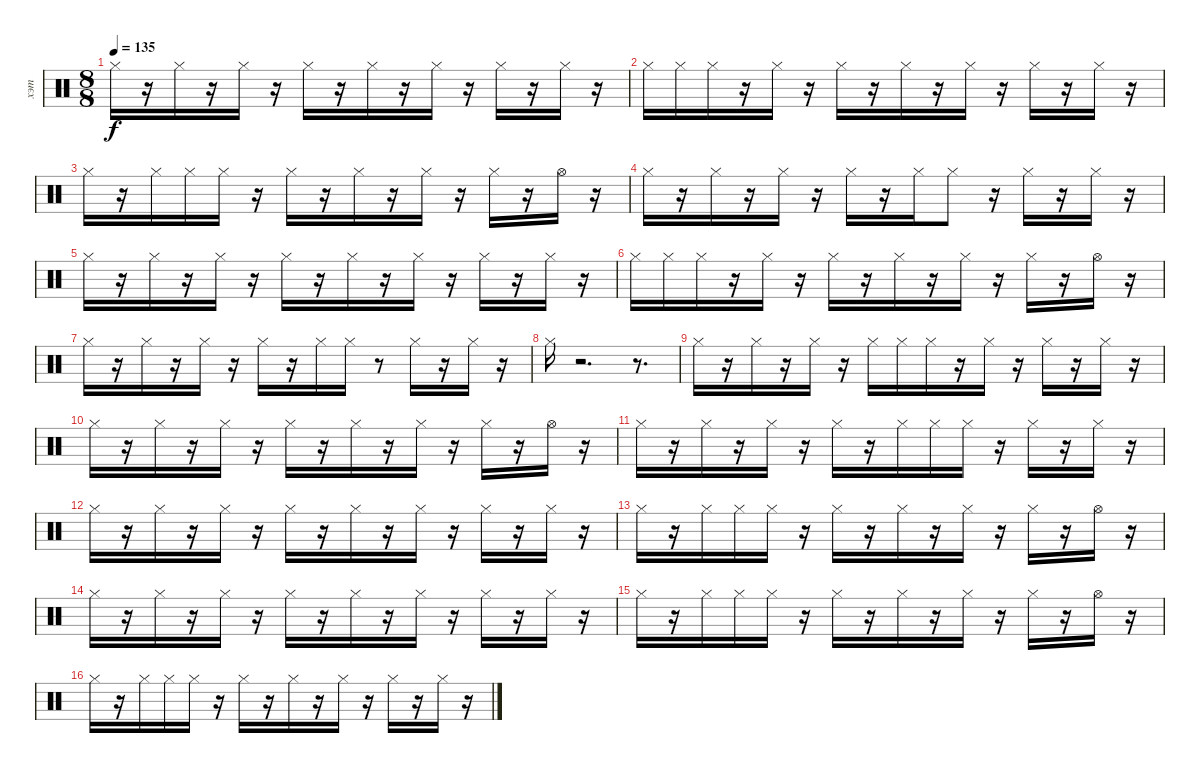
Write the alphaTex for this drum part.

\track ("хэт" "хэт") {instrument percussion}
\staff {score}
\articulation defaults
\ts (8 8)
\tempo 135
\clef neutral
\ks c "Hi-Hat (closed)".16{dy f}
r.16 "Hi-Hat (closed)".16 r.16 "Hi-Hat (closed)".16 r.16 "Hi-Hat (closed)".16 r.16 "Hi-Hat (closed)".16 r.16 "Hi-Hat (closed)".16 r.16 "Hi-Hat (closed)".16 r.16 "Hi-Hat (closed)".16 r.16 |
"Hi-Hat (closed)".16 "Hi-Hat (closed)".16 "Hi-Hat (closed)".16 r.16 "Hi-Hat (closed)".16 r.16 "Hi-Hat (closed)".16 r.16 "Hi-Hat (closed)".16 r.16 "Hi-Hat (closed)".16 r.16 "Hi-Hat (closed)".16 r.16 "Hi-Hat (closed)".16 r.16 |
"Hi-Hat (closed)".16 r.16 "Hi-Hat (closed)".16 "Hi-Hat (closed)".16 "Hi-Hat (closed)".16 r.16 "Hi-Hat (closed)".16 r.16 "Hi-Hat (closed)".16 r.16 "Hi-Hat (closed)".16 r.16 "Hi-Hat (closed)".16 r.16 "Hi-Hat (open)".16 r.16 |
"Hi-Hat (closed)".16 r.16 "Hi-Hat (closed)".16 r.16 "Hi-Hat (closed)".16 r.16 "Hi-Hat (closed)".16 r.16 "Hi-Hat (closed)".16 "Hi-Hat (closed)".8 r.16 "Hi-Hat (closed)".16 r.16 "Hi-Hat (closed)".16 r.16 |
"Hi-Hat (closed)".16 r.16 "Hi-Hat (closed)".16 r.16 "Hi-Hat (closed)".16 r.16 "Hi-Hat (closed)".16 r.16 "Hi-Hat (closed)".16 r.16 "Hi-Hat (closed)".16 r.16 "Hi-Hat (closed)".16 r.16 "Hi-Hat (closed)".16 r.16 |
"Hi-Hat (closed)".16 "Hi-Hat (closed)".16 "Hi-Hat (closed)".16 r.16 "Hi-Hat (closed)".16 r.16 "Hi-Hat (closed)".16 r.16 "Hi-Hat (closed)".16 r.16 "Hi-Hat (closed)".16 r.16 "Hi-Hat (closed)".16 r.16 "Hi-Hat (open)".16 r.16 |
"Hi-Hat (closed)".16 r.16 "Hi-Hat (closed)".16 r.16 "Hi-Hat (closed)".16 r.16 "Hi-Hat (closed)".16 r.16 "Hi-Hat (closed)".16 "Hi-Hat (closed)".16 r.8 "Hi-Hat (closed)".16 r.16 "Hi-Hat (closed)".16 r.16 |
"Hi-Hat (closed)".16 r.2{d} r.8{d} |
"Hi-Hat (closed)".16 r.16 "Hi-Hat (closed)".16 r.16 "Hi-Hat (closed)".16 r.16 "Hi-Hat (closed)".16 "Hi-Hat (closed)".16 "Hi-Hat (closed)".16 r.16 "Hi-Hat (closed)".16 r.16 "Hi-Hat (closed)".16 r.16 "Hi-Hat (closed)".16 r.16 |
"Hi-Hat (closed)".16 r.16 "Hi-Hat (closed)".16 r.16 "Hi-Hat (closed)".16 r.16 "Hi-Hat (closed)".16 r.16 "Hi-Hat (closed)".16 r.16 "Hi-Hat (closed)".16 r.16 "Hi-Hat (closed)".16 r.16 "Hi-Hat (open)".16 r.16 |
"Hi-Hat (closed)".16 r.16 "Hi-Hat (closed)".16 r.16 "Hi-Hat (closed)".16 r.16 "Hi-Hat (closed)".16 r.16 "Hi-Hat (closed)".16 "Hi-Hat (closed)".16 "Hi-Hat (closed)".16 r.16 "Hi-Hat (closed)".16 r.16 "Hi-Hat (closed)".16 r.16 |
"Hi-Hat (closed)".16 r.16 "Hi-Hat (closed)".16 r.16 "Hi-Hat (closed)".16 r.16 "Hi-Hat (closed)".16 r.16 "Hi-Hat (closed)".16 r.16 "Hi-Hat (closed)".16 r.16 "Hi-Hat (closed)".16 r.16 "Hi-Hat (closed)".16 r.16 |
"Hi-Hat (closed)".16 r.16 "Hi-Hat (closed)".16 "Hi-Hat (closed)".16 "Hi-Hat (closed)".16 r.16 "Hi-Hat (closed)".16 r.16 "Hi-Hat (closed)".16 r.16 "Hi-Hat (closed)".16 r.16 "Hi-Hat (closed)".16 r.16 "Hi-Hat (open)".16 r.16 |
"Hi-Hat (closed)".16 r.16 "Hi-Hat (closed)".16 r.16 "Hi-Hat (closed)".16 r.16 "Hi-Hat (closed)".16 r.16 "Hi-Hat (closed)".16 r.16 "Hi-Hat (closed)".16 r.16 "Hi-Hat (closed)".16 r.16 "Hi-Hat (closed)".16 r.16 |
"Hi-Hat (closed)".16 r.16 "Hi-Hat (closed)".16 "Hi-Hat (closed)".16 "Hi-Hat (closed)".16 r.16 "Hi-Hat (closed)".16 r.16 "Hi-Hat (closed)".16 r.16 "Hi-Hat (closed)".16 r.16 "Hi-Hat (closed)".16 r.16 "Hi-Hat (open)".16 r.16 |
"Hi-Hat (closed)".16 r.16 "Hi-Hat (closed)".16 "Hi-Hat (closed)".16 "Hi-Hat (closed)".16 r.16 "Hi-Hat (closed)".16 r.16 "Hi-Hat (closed)".16 r.16 "Hi-Hat (closed)".16 r.16 "Hi-Hat (closed)".16 r.16 "Hi-Hat (closed)".16 r.16
